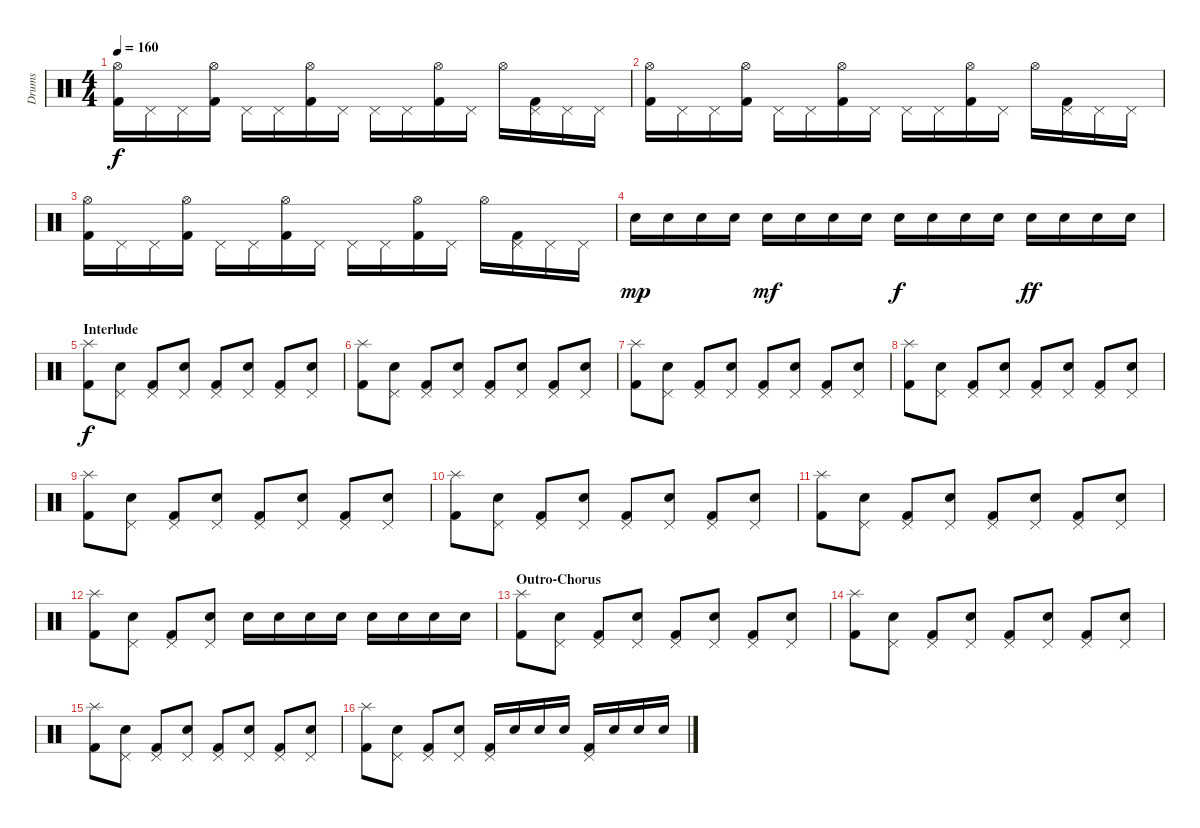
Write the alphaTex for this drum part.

\track ("Drums" "Drums") {instrument percussion}
\staff {score}
\articulation defaults
\ts (4 4)
\tempo 160
\clef neutral
\ks c
("Hi-Hat (open)" "Kick (hit) 2").16{dy f} "Pedal Hi-Hat (hit)".16 "Pedal Hi-Hat (hit)".16 ("Hi-Hat (open)" "Kick (hit) 2").16 "Pedal Hi-Hat (hit)".16 "Pedal Hi-Hat (hit)".16 ("Hi-Hat (open)" "Kick (hit) 2").16 "Pedal Hi-Hat (hit)".16 "Pedal Hi-Hat (hit)".16 "Pedal Hi-Hat (hit)".16 ("Hi-Hat (open)" "Kick (hit) 2").16 "Pedal Hi-Hat (hit)".16 "Hi-Hat (open)".16 ("Pedal Hi-Hat (hit)" "Kick (hit) 2").16 "Pedal Hi-Hat (hit)".16 "Pedal Hi-Hat (hit)".16 |
("Hi-Hat (open)" "Kick (hit) 2").16 "Pedal Hi-Hat (hit)".16 "Pedal Hi-Hat (hit)".16 ("Hi-Hat (open)" "Kick (hit) 2").16 "Pedal Hi-Hat (hit)".16 "Pedal Hi-Hat (hit)".16 ("Hi-Hat (open)" "Kick (hit) 2").16 "Pedal Hi-Hat (hit)".16 "Pedal Hi-Hat (hit)".16 "Pedal Hi-Hat (hit)".16 ("Hi-Hat (open)" "Kick (hit) 2").16 "Pedal Hi-Hat (hit)".16 "Hi-Hat (open)".16 ("Pedal Hi-Hat (hit)" "Kick (hit) 2").16 "Pedal Hi-Hat (hit)".16 "Pedal Hi-Hat (hit)".16 |
("Hi-Hat (open)" "Kick (hit) 2").16 "Pedal Hi-Hat (hit)".16 "Pedal Hi-Hat (hit)".16 ("Hi-Hat (open)" "Kick (hit) 2").16 "Pedal Hi-Hat (hit)".16 "Pedal Hi-Hat (hit)".16 ("Hi-Hat (open)" "Kick (hit) 2").16 "Pedal Hi-Hat (hit)".16 "Pedal Hi-Hat (hit)".16 "Pedal Hi-Hat (hit)".16 ("Hi-Hat (open)" "Kick (hit) 2").16 "Pedal Hi-Hat (hit)".16 "Hi-Hat (open)".16 ("Pedal Hi-Hat (hit)" "Kick (hit) 2").16 "Pedal Hi-Hat (hit)".16 "Pedal Hi-Hat (hit)".16 |
"Electric Snare (hit)".16{dy mp} "Electric Snare (hit)".16 "Electric Snare (hit)".16 "Electric Snare (hit)".16 "Electric Snare (hit)".16{dy mf} "Electric Snare (hit)".16 "Electric Snare (hit)".16 "Electric Snare (hit)".16 "Electric Snare (hit)".16{dy f} "Electric Snare (hit)".16 "Electric Snare (hit)".16 "Electric Snare (hit)".16 "Electric Snare (hit)".16{dy ff} "Electric Snare (hit)".16 "Electric Snare (hit)".16 "Electric Snare (hit)".16 |
\section ("" "Interlude")
("Splash (hit)" "Kick (hit) 2").8{dy f} ("Pedal Hi-Hat (hit)" "Electric Snare (hit)").8 ("Pedal Hi-Hat (hit)" "Kick (hit) 2").8 ("Pedal Hi-Hat (hit)" "Electric Snare (hit)").8 ("Pedal Hi-Hat (hit)" "Kick (hit) 2").8 ("Pedal Hi-Hat (hit)" "Electric Snare (hit)").8 ("Pedal Hi-Hat (hit)" "Kick (hit) 2").8 ("Pedal Hi-Hat (hit)" "Electric Snare (hit)").8 |
("Splash (hit)" "Kick (hit) 2").8 ("Pedal Hi-Hat (hit)" "Electric Snare (hit)").8 ("Pedal Hi-Hat (hit)" "Kick (hit) 2").8 ("Pedal Hi-Hat (hit)" "Electric Snare (hit)").8 ("Pedal Hi-Hat (hit)" "Kick (hit) 2").8 ("Pedal Hi-Hat (hit)" "Electric Snare (hit)").8 ("Pedal Hi-Hat (hit)" "Kick (hit) 2").8 ("Pedal Hi-Hat (hit)" "Electric Snare (hit)").8 |
("Splash (hit)" "Kick (hit) 2").8 ("Pedal Hi-Hat (hit)" "Electric Snare (hit)").8 ("Pedal Hi-Hat (hit)" "Kick (hit) 2").8 ("Pedal Hi-Hat (hit)" "Electric Snare (hit)").8 ("Pedal Hi-Hat (hit)" "Kick (hit) 2").8 ("Pedal Hi-Hat (hit)" "Electric Snare (hit)").8 ("Pedal Hi-Hat (hit)" "Kick (hit) 2").8 ("Pedal Hi-Hat (hit)" "Electric Snare (hit)").8 |
("Splash (hit)" "Kick (hit) 2").8 ("Pedal Hi-Hat (hit)" "Electric Snare (hit)").8 ("Pedal Hi-Hat (hit)" "Kick (hit) 2").8 ("Pedal Hi-Hat (hit)" "Electric Snare (hit)").8 ("Pedal Hi-Hat (hit)" "Kick (hit) 2").8 ("Pedal Hi-Hat (hit)" "Electric Snare (hit)").8 ("Pedal Hi-Hat (hit)" "Kick (hit) 2").8 ("Pedal Hi-Hat (hit)" "Electric Snare (hit)").8 |
("Splash (hit)" "Kick (hit) 2").8 ("Pedal Hi-Hat (hit)" "Electric Snare (hit)").8 ("Pedal Hi-Hat (hit)" "Kick (hit) 2").8 ("Pedal Hi-Hat (hit)" "Electric Snare (hit)").8 ("Pedal Hi-Hat (hit)" "Kick (hit) 2").8 ("Pedal Hi-Hat (hit)" "Electric Snare (hit)").8 ("Pedal Hi-Hat (hit)" "Kick (hit) 2").8 ("Pedal Hi-Hat (hit)" "Electric Snare (hit)").8 |
("Splash (hit)" "Kick (hit) 2").8 ("Pedal Hi-Hat (hit)" "Electric Snare (hit)").8 ("Pedal Hi-Hat (hit)" "Kick (hit) 2").8 ("Pedal Hi-Hat (hit)" "Electric Snare (hit)").8 ("Pedal Hi-Hat (hit)" "Kick (hit) 2").8 ("Pedal Hi-Hat (hit)" "Electric Snare (hit)").8 ("Pedal Hi-Hat (hit)" "Kick (hit) 2").8 ("Pedal Hi-Hat (hit)" "Electric Snare (hit)").8 |
("Splash (hit)" "Kick (hit) 2").8 ("Pedal Hi-Hat (hit)" "Electric Snare (hit)").8 ("Pedal Hi-Hat (hit)" "Kick (hit) 2").8 ("Pedal Hi-Hat (hit)" "Electric Snare (hit)").8 ("Pedal Hi-Hat (hit)" "Kick (hit) 2").8 ("Pedal Hi-Hat (hit)" "Electric Snare (hit)").8 ("Pedal Hi-Hat (hit)" "Kick (hit) 2").8 ("Pedal Hi-Hat (hit)" "Electric Snare (hit)").8 |
("Splash (hit)" "Kick (hit) 2").8 ("Pedal Hi-Hat (hit)" "Electric Snare (hit)").8 ("Pedal Hi-Hat (hit)" "Kick (hit) 2").8 ("Pedal Hi-Hat (hit)" "Electric Snare (hit)").8 "Electric Snare (hit)".16 "Electric Snare (hit)".16 "Electric Snare (hit)".16 "Electric Snare (hit)".16 "Electric Snare (hit)".16 "Electric Snare (hit)".16 "Electric Snare (hit)".16 "Electric Snare (hit)".16 |
\section ("" "Outro-Chorus")
("Splash (hit)" "Kick (hit) 2").8 ("Pedal Hi-Hat (hit)" "Electric Snare (hit)").8 ("Pedal Hi-Hat (hit)" "Kick (hit) 2").8 ("Pedal Hi-Hat (hit)" "Electric Snare (hit)").8 ("Pedal Hi-Hat (hit)" "Kick (hit) 2").8 ("Pedal Hi-Hat (hit)" "Electric Snare (hit)").8 ("Pedal Hi-Hat (hit)" "Kick (hit) 2").8 ("Pedal Hi-Hat (hit)" "Electric Snare (hit)").8 |
("Splash (hit)" "Kick (hit) 2").8 ("Pedal Hi-Hat (hit)" "Electric Snare (hit)").8 ("Pedal Hi-Hat (hit)" "Kick (hit) 2").8 ("Pedal Hi-Hat (hit)" "Electric Snare (hit)").8 ("Pedal Hi-Hat (hit)" "Kick (hit) 2").8 ("Pedal Hi-Hat (hit)" "Electric Snare (hit)").8 ("Pedal Hi-Hat (hit)" "Kick (hit) 2").8 ("Pedal Hi-Hat (hit)" "Electric Snare (hit)").8 |
("Splash (hit)" "Kick (hit) 2").8 ("Pedal Hi-Hat (hit)" "Electric Snare (hit)").8 ("Pedal Hi-Hat (hit)" "Kick (hit) 2").8 ("Pedal Hi-Hat (hit)" "Electric Snare (hit)").8 ("Pedal Hi-Hat (hit)" "Kick (hit) 2").8 ("Pedal Hi-Hat (hit)" "Electric Snare (hit)").8 ("Pedal Hi-Hat (hit)" "Kick (hit) 2").8 ("Pedal Hi-Hat (hit)" "Electric Snare (hit)").8 |
("Splash (hit)" "Kick (hit) 2").8 ("Pedal Hi-Hat (hit)" "Electric Snare (hit)").8 ("Pedal Hi-Hat (hit)" "Kick (hit) 2").8 ("Pedal Hi-Hat (hit)" "Electric Snare (hit)").8 ("Pedal Hi-Hat (hit)" "Kick (hit) 2").16 "Electric Snare (hit)".16 "Electric Snare (hit)".16 "Electric Snare (hit)".16 ("Pedal Hi-Hat (hit)" "Kick (hit) 2").16 "Electric Snare (hit)".16 "Electric Snare (hit)".16 "Electric Snare (hit)".16
